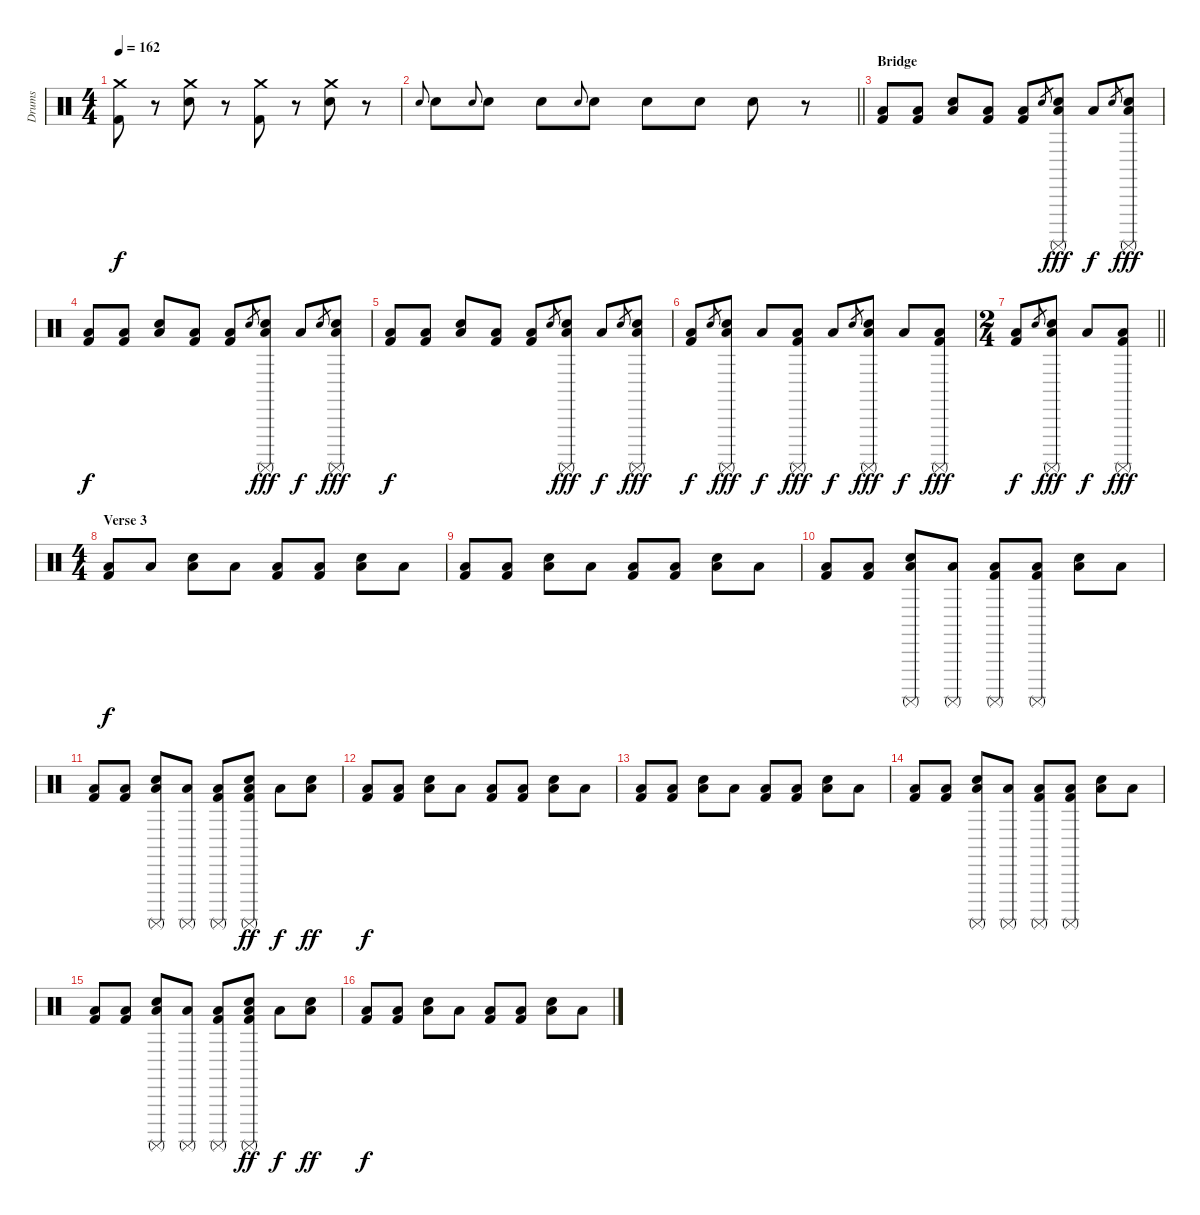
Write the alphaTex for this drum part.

\track ("Drums" "Drums") {instrument percussion}
\staff {score}
\articulation defaults
\ts (4 4)
\tempo 162
\clef neutral
\ks c
("Crash medium (hit)" "Kick (hit) 2").8{dy f} r.8 ("Crash medium (hit)" "Electric Snare (hit)").8 r.8 ("Crash medium (hit)" "Kick (hit) 2").8 r.8 ("Crash medium (hit)" "Electric Snare (hit)").8 r.8 |
\barLineRight lightlight "Snare (hit) 2".8{gr onbeat} "Snare (hit) 2".8 "Snare (hit) 2".8{gr onbeat} "Snare (hit) 2".8 "Snare (hit) 2".8 "Snare (hit) 2".8{gr onbeat} "Snare (hit) 2".8 "Snare (hit) 2".8 "Snare (hit) 2".8 "Snare (hit) 2".8
r.8 |
\section ("" "Bridge")
("Low Floor Tom (hit)" "Kick (hit) 2").8 ("Low Floor Tom (hit)" "Kick (hit) 2").8 ("Electric Snare (hit)" "Low Floor Tom (hit)").8 ("Low Floor Tom (hit)" "Kick (hit) 2").8 ("Low Floor Tom (hit)" "Kick (hit) 2").8 "Electric Snare (hit)".8{gr} ("Surdo (mute)" "Electric Snare (hit)" "Low Floor Tom (hit)").8{dy fff} "Low Floor Tom (hit)".8{dy f} "Electric Snare (hit)".8{gr} ("Surdo (mute)" "Electric Snare (hit)" "Low Floor Tom (hit)").8{dy fff} |
("Low Floor Tom (hit)" "Kick (hit) 2").8{dy f} ("Low Floor Tom (hit)" "Kick (hit) 2").8 ("Electric Snare (hit)" "Low Floor Tom (hit)").8 ("Low Floor Tom (hit)" "Kick (hit) 2").8 ("Low Floor Tom (hit)" "Kick (hit) 2").8 "Electric Snare (hit)".8{gr} ("Surdo (mute)" "Electric Snare (hit)" "Low Floor Tom (hit)").8{dy fff} "Low Floor Tom (hit)".8{dy f} "Electric Snare (hit)".8{gr} ("Surdo (mute)" "Electric Snare (hit)" "Low Floor Tom (hit)").8{dy fff} |
("Low Floor Tom (hit)" "Kick (hit) 2").8{dy f} ("Low Floor Tom (hit)" "Kick (hit) 2").8 ("Electric Snare (hit)" "Low Floor Tom (hit)").8 ("Low Floor Tom (hit)" "Kick (hit) 2").8 ("Low Floor Tom (hit)" "Kick (hit) 2").8 "Electric Snare (hit)".8{gr} ("Surdo (mute)" "Electric Snare (hit)" "Low Floor Tom (hit)").8{dy fff} "Low Floor Tom (hit)".8{dy f} "Electric Snare (hit)".8{gr} ("Surdo (mute)" "Electric Snare (hit)" "Low Floor Tom (hit)").8{dy fff} |
("Low Floor Tom (hit)" "Kick (hit) 2").8{dy f} "Electric Snare (hit)".8{gr} ("Surdo (mute)" "Electric Snare (hit)" "Low Floor Tom (hit)").8{dy fff} "Low Floor Tom (hit)".8{dy f} ("Surdo (mute)" "Low Floor Tom (hit)" "Kick (hit) 2").8{dy fff} "Low Floor Tom (hit)".8{dy f} "Electric Snare (hit)".8{gr} ("Surdo (mute)" "Electric Snare (hit)" "Low Floor Tom (hit)").8{dy fff} "Low Floor Tom (hit)".8{dy f} ("Surdo (mute)" "Low Floor Tom (hit)" "Kick (hit) 2").8{dy fff} |
\ts (2 4)
\barLineRight lightlight
("Low Floor Tom (hit)" "Kick (hit) 2").8{dy f} "Electric Snare (hit)".8{gr} ("Surdo (mute)" "Electric Snare (hit)" "Low Floor Tom (hit)").8{dy fff} "Low Floor Tom (hit)".8{dy f} ("Surdo (mute)" "Low Floor Tom (hit)" "Kick (hit) 2").8{dy fff} |
\ts (4 4)
\section ("" "Verse 3")
("Low Floor Tom (hit)" "Kick (hit) 2").8{dy f} "Low Floor Tom (hit)".8 ("Electric Snare (hit)" "Low Floor Tom (hit)").8 "Low Floor Tom (hit)".8 ("Low Floor Tom (hit)" "Kick (hit) 2").8 ("Low Floor Tom (hit)" "Kick (hit) 2").8 ("Electric Snare (hit)" "Low Floor Tom (hit)").8 "Low Floor Tom (hit)".8 |
("Low Floor Tom (hit)" "Kick (hit) 2").8 ("Low Floor Tom (hit)" "Kick (hit) 2").8 ("Electric Snare (hit)" "Low Floor Tom (hit)").8 "Low Floor Tom (hit)".8 ("Low Floor Tom (hit)" "Kick (hit) 2").8 ("Low Floor Tom (hit)" "Kick (hit) 2").8 ("Electric Snare (hit)" "Low Floor Tom (hit)").8 "Low Floor Tom (hit)".8 |
("Low Floor Tom (hit)" "Kick (hit) 2").8 ("Low Floor Tom (hit)" "Kick (hit) 2").8 ("Surdo (mute)" "Electric Snare (hit)" "Low Floor Tom (hit)").8 ("Surdo (mute)" "Low Floor Tom (hit)").8 ("Surdo (mute)" "Low Floor Tom (hit)" "Kick (hit) 2").8 ("Surdo (mute)" "Low Floor Tom (hit)" "Kick (hit) 2").8 ("Electric Snare (hit)" "Low Floor Tom (hit)").8 "Low Floor Tom (hit)".8 |
("Low Floor Tom (hit)" "Kick (hit) 2").8 ("Low Floor Tom (hit)" "Kick (hit) 2").8 ("Surdo (mute)" "Electric Snare (hit)" "Low Floor Tom (hit)").8 ("Surdo (mute)" "Low Floor Tom (hit)").8 ("Surdo (mute)" "Low Floor Tom (hit)" "Kick (hit) 2").8 ("Surdo (mute)" "Electric Snare (hit)" "Low Floor Tom (hit)" "Kick (hit) 2").8{dy ff} "Low Floor Tom (hit)".8{dy f} ("Electric Snare (hit)" "Low Floor Tom (hit)").8{dy ff} |
("Low Floor Tom (hit)" "Kick (hit) 2").8{dy f} ("Low Floor Tom (hit)" "Kick (hit) 2").8 ("Electric Snare (hit)" "Low Floor Tom (hit)").8 "Low Floor Tom (hit)".8 ("Low Floor Tom (hit)" "Kick (hit) 2").8 ("Low Floor Tom (hit)" "Kick (hit) 2").8 ("Electric Snare (hit)" "Low Floor Tom (hit)").8 "Low Floor Tom (hit)".8 |
("Low Floor Tom (hit)" "Kick (hit) 2").8 ("Low Floor Tom (hit)" "Kick (hit) 2").8 ("Electric Snare (hit)" "Low Floor Tom (hit)").8 "Low Floor Tom (hit)".8 ("Low Floor Tom (hit)" "Kick (hit) 2").8 ("Low Floor Tom (hit)" "Kick (hit) 2").8 ("Electric Snare (hit)" "Low Floor Tom (hit)").8 "Low Floor Tom (hit)".8 |
("Low Floor Tom (hit)" "Kick (hit) 2").8 ("Low Floor Tom (hit)" "Kick (hit) 2").8 ("Surdo (mute)" "Electric Snare (hit)" "Low Floor Tom (hit)").8 ("Surdo (mute)" "Low Floor Tom (hit)").8 ("Surdo (mute)" "Low Floor Tom (hit)" "Kick (hit) 2").8 ("Surdo (mute)" "Low Floor Tom (hit)" "Kick (hit) 2").8 ("Electric Snare (hit)" "Low Floor Tom (hit)").8 "Low Floor Tom (hit)".8 |
("Low Floor Tom (hit)" "Kick (hit) 2").8 ("Low Floor Tom (hit)" "Kick (hit) 2").8 ("Surdo (mute)" "Electric Snare (hit)" "Low Floor Tom (hit)").8 ("Surdo (mute)" "Low Floor Tom (hit)").8 ("Surdo (mute)" "Low Floor Tom (hit)" "Kick (hit) 2").8 ("Surdo (mute)" "Electric Snare (hit)" "Low Floor Tom (hit)" "Kick (hit) 2").8{dy ff} "Low Floor Tom (hit)".8{dy f} ("Electric Snare (hit)" "Low Floor Tom (hit)").8{dy ff} |
("Low Floor Tom (hit)" "Kick (hit) 2").8{dy f} ("Low Floor Tom (hit)" "Kick (hit) 2").8 ("Electric Snare (hit)" "Low Floor Tom (hit)").8 "Low Floor Tom (hit)".8 ("Low Floor Tom (hit)" "Kick (hit) 2").8 ("Low Floor Tom (hit)" "Kick (hit) 2").8 ("Electric Snare (hit)" "Low Floor Tom (hit)").8 "Low Floor Tom (hit)".8
